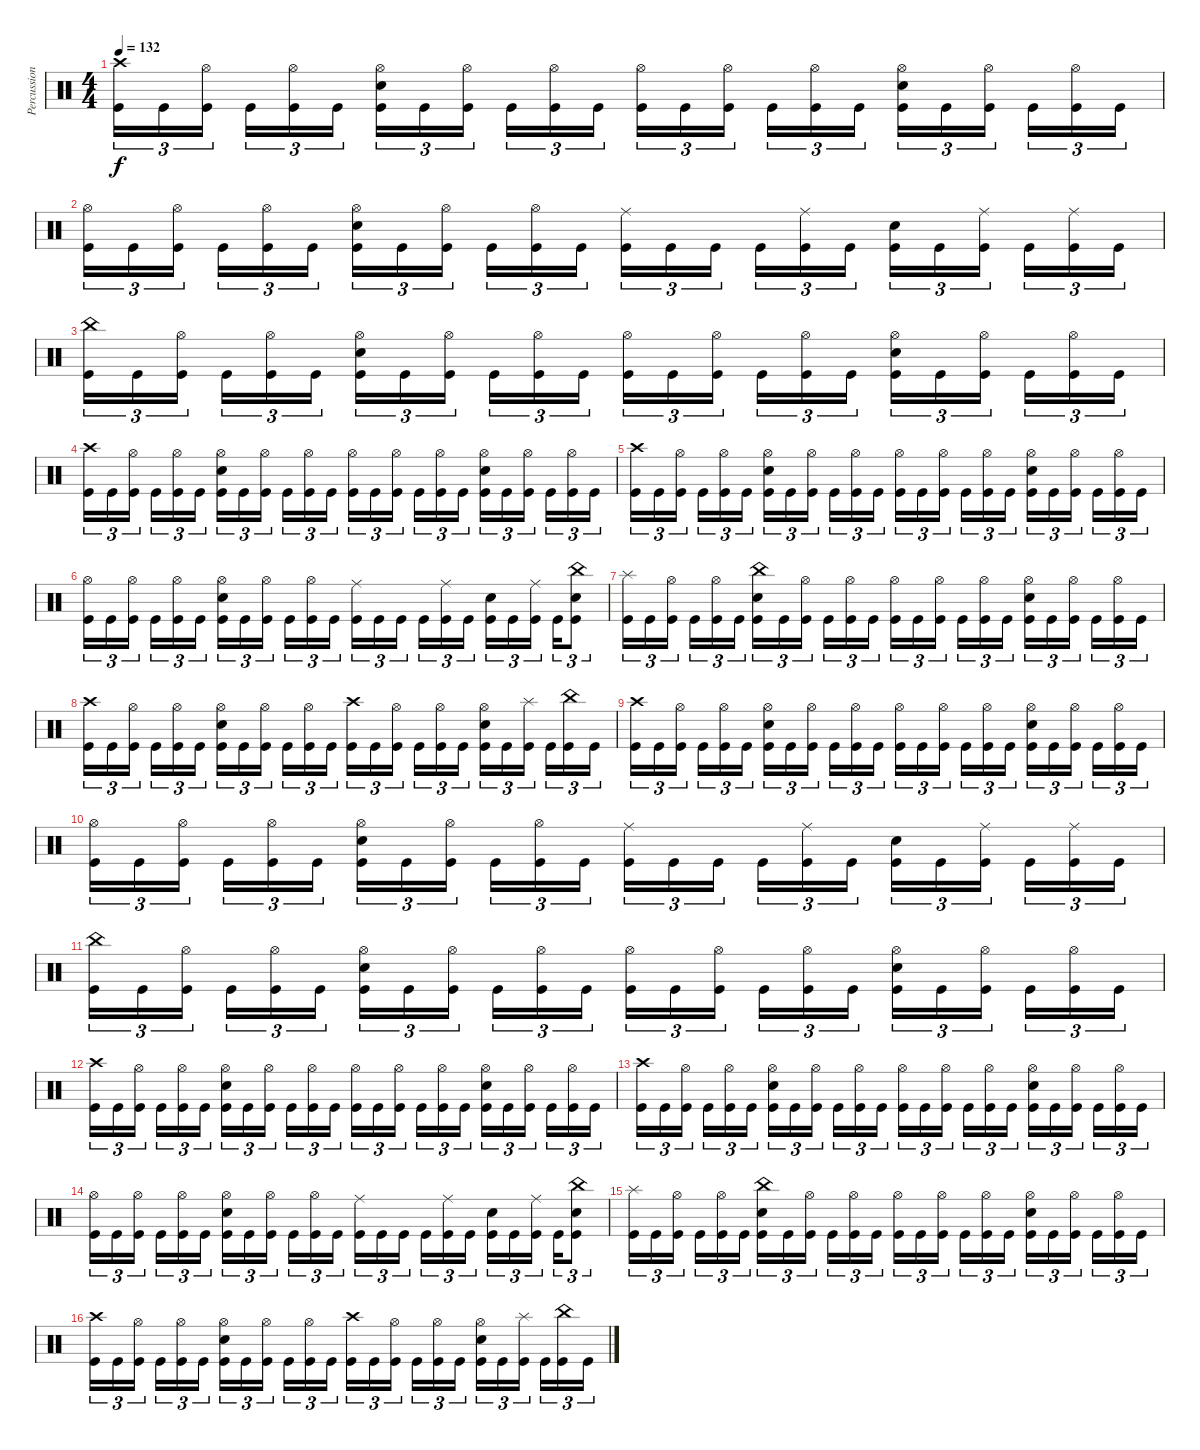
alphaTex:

\track ("Percussion" "Percussion") {instrument percussion}
\staff {score}
\articulation defaults
\ts (4 4)
\tempo 132
\clef neutral
\ks c
("Kick (hit)" "Crash high (hit)").16{tu (3 2) dy f} "Kick (hit)".16{tu (3 2)} ("Kick (hit)" "Hi-Hat (open)").16{tu (3 2) beam splitsecondary} "Kick (hit)".16{tu (3 2)} ("Kick (hit)" "Hi-Hat (open)").16{tu (3 2)} "Kick (hit)".16{tu (3 2)} ("Electric Snare (hit)" "Kick (hit)" "Hi-Hat (open)").16{tu (3 2)} "Kick (hit)".16{tu (3 2)} ("Hi-Hat (open)" "Kick (hit)").16{tu (3 2) beam splitsecondary} "Kick (hit)".16{tu (3 2)} ("Kick (hit)" "Hi-Hat (open)").16{tu (3 2)} "Kick (hit)".16{tu (3 2)} ("Hi-Hat (open)" "Kick (hit)").16{tu (3 2)} "Kick (hit)".16{tu (3 2)} ("Kick (hit)" "Hi-Hat (open)").16{tu (3 2) beam splitsecondary} "Kick (hit)".16{tu (3 2)} ("Kick (hit)" "Hi-Hat (open)").16{tu (3 2)} "Kick (hit)".16{tu (3 2)} ("Electric Snare (hit)" "Kick (hit)" "Hi-Hat (open)").16{tu (3 2)} "Kick (hit)".16{tu (3 2)} ("Kick (hit)" "Hi-Hat (open)").16{tu (3 2) beam splitsecondary} "Kick (hit)".16{tu (3 2)} ("Kick (hit)" "Hi-Hat (open)").16{tu (3 2)} "Kick (hit)".16{tu (3 2)} |
("Kick (hit)" "Hi-Hat (open)").16{tu (3 2)} "Kick (hit)".16{tu (3 2)} ("Kick (hit)" "Hi-Hat (open)").16{tu (3 2) beam splitsecondary} "Kick (hit)".16{tu (3 2)} ("Kick (hit)" "Hi-Hat (open)").16{tu (3 2)} "Kick (hit)".16{tu (3 2)} ("Electric Snare (hit)" "Kick (hit)" "Hi-Hat (open)").16{tu (3 2)} "Kick (hit)".16{tu (3 2)} ("Hi-Hat (open)" "Kick (hit)").16{tu (3 2) beam splitsecondary} "Kick (hit)".16{tu (3 2)} ("Kick (hit)" "Hi-Hat (open)").16{tu (3 2)} "Kick (hit)".16{tu (3 2)} ("Ride (middle)" "Kick (hit)").16{tu (3 2)} "Kick (hit)".16{tu (3 2)} "Kick (hit)".16{tu (3 2) beam splitsecondary} "Kick (hit)".16{tu (3 2)} ("Ride (middle)" "Kick (hit)").16{tu (3 2)} "Kick (hit)".16{tu (3 2)} ("Electric Snare (hit)" "Kick (hit)").16{tu (3 2)} "Kick (hit)".16{tu (3 2)} ("Ride (middle)" "Kick (hit)").16{tu (3 2) beam splitsecondary} "Kick (hit)".16{tu (3 2)} ("Ride (middle)" "Kick (hit)").16{tu (3 2)} "Kick (hit)".16{tu (3 2)} |
("Kick (hit)" "China (hit)").16{tu (3 2)} "Kick (hit)".16{tu (3 2)} ("Kick (hit)" "Hi-Hat (open)").16{tu (3 2) beam splitsecondary} "Kick (hit)".16{tu (3 2)} ("Kick (hit)" "Hi-Hat (open)").16{tu (3 2)} "Kick (hit)".16{tu (3 2)} ("Electric Snare (hit)" "Kick (hit)" "Hi-Hat (open)").16{tu (3 2)} "Kick (hit)".16{tu (3 2)} ("Hi-Hat (open)" "Kick (hit)").16{tu (3 2) beam splitsecondary} "Kick (hit)".16{tu (3 2)} ("Kick (hit)" "Hi-Hat (open)").16{tu (3 2)} "Kick (hit)".16{tu (3 2)} ("Hi-Hat (open)" "Kick (hit)").16{tu (3 2)} "Kick (hit)".16{tu (3 2)} ("Kick (hit)" "Hi-Hat (open)").16{tu (3 2) beam splitsecondary} "Kick (hit)".16{tu (3 2)} ("Kick (hit)" "Hi-Hat (open)").16{tu (3 2)} "Kick (hit)".16{tu (3 2)} ("Electric Snare (hit)" "Kick (hit)" "Hi-Hat (open)").16{tu (3 2)} "Kick (hit)".16{tu (3 2)} ("Kick (hit)" "Hi-Hat (open)").16{tu (3 2) beam splitsecondary} "Kick (hit)".16{tu (3 2)} ("Kick (hit)" "Hi-Hat (open)").16{tu (3 2)} "Kick (hit)".16{tu (3 2)} |
("Kick (hit)" "Crash high (hit)").16{tu (3 2)} "Kick (hit)".16{tu (3 2)} ("Kick (hit)" "Hi-Hat (open)").16{tu (3 2) beam splitsecondary} "Kick (hit)".16{tu (3 2)} ("Kick (hit)" "Hi-Hat (open)").16{tu (3 2)} "Kick (hit)".16{tu (3 2)} ("Electric Snare (hit)" "Kick (hit)" "Hi-Hat (open)").16{tu (3 2)} "Kick (hit)".16{tu (3 2)} ("Hi-Hat (open)" "Kick (hit)").16{tu (3 2) beam splitsecondary} "Kick (hit)".16{tu (3 2)} ("Kick (hit)" "Hi-Hat (open)").16{tu (3 2)} "Kick (hit)".16{tu (3 2)} ("Hi-Hat (open)" "Kick (hit)").16{tu (3 2)} "Kick (hit)".16{tu (3 2)} ("Kick (hit)" "Hi-Hat (open)").16{tu (3 2) beam splitsecondary} "Kick (hit)".16{tu (3 2)} ("Kick (hit)" "Hi-Hat (open)").16{tu (3 2)} "Kick (hit)".16{tu (3 2)} ("Electric Snare (hit)" "Kick (hit)" "Hi-Hat (open)").16{tu (3 2)} "Kick (hit)".16{tu (3 2)} ("Kick (hit)" "Hi-Hat (open)").16{tu (3 2) beam splitsecondary} "Kick (hit)".16{tu (3 2)} ("Kick (hit)" "Hi-Hat (open)").16{tu (3 2)} "Kick (hit)".16{tu (3 2)} |
("Kick (hit)" "Crash high (hit)").16{tu (3 2)} "Kick (hit)".16{tu (3 2)} ("Kick (hit)" "Hi-Hat (open)").16{tu (3 2) beam splitsecondary} "Kick (hit)".16{tu (3 2)} ("Kick (hit)" "Hi-Hat (open)").16{tu (3 2)} "Kick (hit)".16{tu (3 2)} ("Electric Snare (hit)" "Kick (hit)" "Hi-Hat (open)").16{tu (3 2)} "Kick (hit)".16{tu (3 2)} ("Hi-Hat (open)" "Kick (hit)").16{tu (3 2) beam splitsecondary} "Kick (hit)".16{tu (3 2)} ("Kick (hit)" "Hi-Hat (open)").16{tu (3 2)} "Kick (hit)".16{tu (3 2)} ("Hi-Hat (open)" "Kick (hit)").16{tu (3 2)} "Kick (hit)".16{tu (3 2)} ("Kick (hit)" "Hi-Hat (open)").16{tu (3 2) beam splitsecondary} "Kick (hit)".16{tu (3 2)} ("Kick (hit)" "Hi-Hat (open)").16{tu (3 2)} "Kick (hit)".16{tu (3 2)} ("Electric Snare (hit)" "Kick (hit)" "Hi-Hat (open)").16{tu (3 2)} "Kick (hit)".16{tu (3 2)} ("Kick (hit)" "Hi-Hat (open)").16{tu (3 2) beam splitsecondary} "Kick (hit)".16{tu (3 2)} ("Kick (hit)" "Hi-Hat (open)").16{tu (3 2)} "Kick (hit)".16{tu (3 2)} |
("Kick (hit)" "Hi-Hat (open)").16{tu (3 2)} "Kick (hit)".16{tu (3 2)} ("Kick (hit)" "Hi-Hat (open)").16{tu (3 2) beam splitsecondary} "Kick (hit)".16{tu (3 2)} ("Kick (hit)" "Hi-Hat (open)").16{tu (3 2)} "Kick (hit)".16{tu (3 2)} ("Electric Snare (hit)" "Kick (hit)" "Hi-Hat (open)").16{tu (3 2)} "Kick (hit)".16{tu (3 2)} ("Hi-Hat (open)" "Kick (hit)").16{tu (3 2) beam splitsecondary} "Kick (hit)".16{tu (3 2)} ("Kick (hit)" "Hi-Hat (open)").16{tu (3 2)} "Kick (hit)".16{tu (3 2)} ("Ride (middle)" "Kick (hit)").16{tu (3 2)} "Kick (hit)".16{tu (3 2)} "Kick (hit)".16{tu (3 2) beam splitsecondary} "Kick (hit)".16{tu (3 2)} ("Ride (middle)" "Kick (hit)").16{tu (3 2)} "Kick (hit)".16{tu (3 2)} ("Electric Snare (hit)" "Kick (hit)").16{tu (3 2)} "Kick (hit)".16{tu (3 2)} ("Ride (middle)" "Kick (hit)").16{tu (3 2) beam splitsecondary} "Kick (hit)".16{tu (3 2)} ("Electric Snare (hit)" "China (hit)" "Kick (hit)").8{tu (3 2)} |
("Kick (hit)" "Splash (hit)").16{tu (3 2)} "Kick (hit)".16{tu (3 2)} ("Kick (hit)" "Hi-Hat (open)").16{tu (3 2) beam splitsecondary} "Kick (hit)".16{tu (3 2)} ("Kick (hit)" "Hi-Hat (open)").16{tu (3 2)} "Kick (hit)".16{tu (3 2)} ("Electric Snare (hit)" "Kick (hit)" "China (hit)").16{tu (3 2)} "Kick (hit)".16{tu (3 2)} ("Hi-Hat (open)" "Kick (hit)").16{tu (3 2) beam splitsecondary} "Kick (hit)".16{tu (3 2)} ("Kick (hit)" "Hi-Hat (open)").16{tu (3 2)} "Kick (hit)".16{tu (3 2)} ("Hi-Hat (open)" "Kick (hit)").16{tu (3 2)} "Kick (hit)".16{tu (3 2)} ("Kick (hit)" "Hi-Hat (open)").16{tu (3 2) beam splitsecondary} "Kick (hit)".16{tu (3 2)} ("Kick (hit)" "Hi-Hat (open)").16{tu (3 2)} "Kick (hit)".16{tu (3 2)} ("Electric Snare (hit)" "Kick (hit)" "Hi-Hat (open)").16{tu (3 2)} "Kick (hit)".16{tu (3 2)} ("Kick (hit)" "Hi-Hat (open)").16{tu (3 2) beam splitsecondary} "Kick (hit)".16{tu (3 2)} ("Kick (hit)" "Hi-Hat (open)").16{tu (3 2)} "Kick (hit)".16{tu (3 2)} |
("Kick (hit)" "Crash high (hit)").16{tu (3 2)} "Kick (hit)".16{tu (3 2)} ("Kick (hit)" "Hi-Hat (open)").16{tu (3 2) beam splitsecondary} "Kick (hit)".16{tu (3 2)} ("Kick (hit)" "Hi-Hat (open)").16{tu (3 2)} "Kick (hit)".16{tu (3 2)} ("Electric Snare (hit)" "Kick (hit)" "Hi-Hat (open)").16{tu (3 2)} "Kick (hit)".16{tu (3 2)} ("Hi-Hat (open)" "Kick (hit)").16{tu (3 2) beam splitsecondary} "Kick (hit)".16{tu (3 2)} ("Kick (hit)" "Hi-Hat (open)").16{tu (3 2)} "Kick (hit)".16{tu (3 2)} ("Crash high (hit)" "Kick (hit)").16{tu (3 2)} "Kick (hit)".16{tu (3 2)} ("Kick (hit)" "Hi-Hat (open)").16{tu (3 2) beam splitsecondary} "Kick (hit)".16{tu (3 2)} ("Kick (hit)" "Hi-Hat (open)").16{tu (3 2)} "Kick (hit)".16{tu (3 2)} ("Electric Snare (hit)" "Kick (hit)" "Hi-Hat (open)").16{tu (3 2)} "Kick (hit)".16{tu (3 2)} ("Kick (hit)" "Splash (hit)").16{tu (3 2) beam splitsecondary} "Kick (hit)".16{tu (3 2)} ("Kick (hit)" "China (hit)").16{tu (3 2)} "Kick (hit)".16{tu (3 2)} |
("Kick (hit)" "Crash high (hit)").16{tu (3 2)} "Kick (hit)".16{tu (3 2)} ("Kick (hit)" "Hi-Hat (open)").16{tu (3 2) beam splitsecondary} "Kick (hit)".16{tu (3 2)} ("Kick (hit)" "Hi-Hat (open)").16{tu (3 2)} "Kick (hit)".16{tu (3 2)} ("Electric Snare (hit)" "Kick (hit)" "Hi-Hat (open)").16{tu (3 2)} "Kick (hit)".16{tu (3 2)} ("Hi-Hat (open)" "Kick (hit)").16{tu (3 2) beam splitsecondary} "Kick (hit)".16{tu (3 2)} ("Kick (hit)" "Hi-Hat (open)").16{tu (3 2)} "Kick (hit)".16{tu (3 2)} ("Hi-Hat (open)" "Kick (hit)").16{tu (3 2)} "Kick (hit)".16{tu (3 2)} ("Kick (hit)" "Hi-Hat (open)").16{tu (3 2) beam splitsecondary} "Kick (hit)".16{tu (3 2)} ("Kick (hit)" "Hi-Hat (open)").16{tu (3 2)} "Kick (hit)".16{tu (3 2)} ("Electric Snare (hit)" "Kick (hit)" "Hi-Hat (open)").16{tu (3 2)} "Kick (hit)".16{tu (3 2)} ("Kick (hit)" "Hi-Hat (open)").16{tu (3 2) beam splitsecondary} "Kick (hit)".16{tu (3 2)} ("Kick (hit)" "Hi-Hat (open)").16{tu (3 2)} "Kick (hit)".16{tu (3 2)} |
("Kick (hit)" "Hi-Hat (open)").16{tu (3 2)} "Kick (hit)".16{tu (3 2)} ("Kick (hit)" "Hi-Hat (open)").16{tu (3 2) beam splitsecondary} "Kick (hit)".16{tu (3 2)} ("Kick (hit)" "Hi-Hat (open)").16{tu (3 2)} "Kick (hit)".16{tu (3 2)} ("Electric Snare (hit)" "Kick (hit)" "Hi-Hat (open)").16{tu (3 2)} "Kick (hit)".16{tu (3 2)} ("Hi-Hat (open)" "Kick (hit)").16{tu (3 2) beam splitsecondary} "Kick (hit)".16{tu (3 2)} ("Kick (hit)" "Hi-Hat (open)").16{tu (3 2)} "Kick (hit)".16{tu (3 2)} ("Ride (middle)" "Kick (hit)").16{tu (3 2)} "Kick (hit)".16{tu (3 2)} "Kick (hit)".16{tu (3 2) beam splitsecondary} "Kick (hit)".16{tu (3 2)} ("Ride (middle)" "Kick (hit)").16{tu (3 2)} "Kick (hit)".16{tu (3 2)} ("Electric Snare (hit)" "Kick (hit)").16{tu (3 2)} "Kick (hit)".16{tu (3 2)} ("Ride (middle)" "Kick (hit)").16{tu (3 2) beam splitsecondary} "Kick (hit)".16{tu (3 2)} ("Ride (middle)" "Kick (hit)").16{tu (3 2)} "Kick (hit)".16{tu (3 2)} |
("Kick (hit)" "China (hit)").16{tu (3 2)} "Kick (hit)".16{tu (3 2)} ("Kick (hit)" "Hi-Hat (open)").16{tu (3 2) beam splitsecondary} "Kick (hit)".16{tu (3 2)} ("Kick (hit)" "Hi-Hat (open)").16{tu (3 2)} "Kick (hit)".16{tu (3 2)} ("Electric Snare (hit)" "Kick (hit)" "Hi-Hat (open)").16{tu (3 2)} "Kick (hit)".16{tu (3 2)} ("Hi-Hat (open)" "Kick (hit)").16{tu (3 2) beam splitsecondary} "Kick (hit)".16{tu (3 2)} ("Kick (hit)" "Hi-Hat (open)").16{tu (3 2)} "Kick (hit)".16{tu (3 2)} ("Hi-Hat (open)" "Kick (hit)").16{tu (3 2)} "Kick (hit)".16{tu (3 2)} ("Kick (hit)" "Hi-Hat (open)").16{tu (3 2) beam splitsecondary} "Kick (hit)".16{tu (3 2)} ("Kick (hit)" "Hi-Hat (open)").16{tu (3 2)} "Kick (hit)".16{tu (3 2)} ("Electric Snare (hit)" "Kick (hit)" "Hi-Hat (open)").16{tu (3 2)} "Kick (hit)".16{tu (3 2)} ("Kick (hit)" "Hi-Hat (open)").16{tu (3 2) beam splitsecondary} "Kick (hit)".16{tu (3 2)} ("Kick (hit)" "Hi-Hat (open)").16{tu (3 2)} "Kick (hit)".16{tu (3 2)} |
("Kick (hit)" "Crash high (hit)").16{tu (3 2)} "Kick (hit)".16{tu (3 2)} ("Kick (hit)" "Hi-Hat (open)").16{tu (3 2) beam splitsecondary} "Kick (hit)".16{tu (3 2)} ("Kick (hit)" "Hi-Hat (open)").16{tu (3 2)} "Kick (hit)".16{tu (3 2)} ("Electric Snare (hit)" "Kick (hit)" "Hi-Hat (open)").16{tu (3 2)} "Kick (hit)".16{tu (3 2)} ("Hi-Hat (open)" "Kick (hit)").16{tu (3 2) beam splitsecondary} "Kick (hit)".16{tu (3 2)} ("Kick (hit)" "Hi-Hat (open)").16{tu (3 2)} "Kick (hit)".16{tu (3 2)} ("Hi-Hat (open)" "Kick (hit)").16{tu (3 2)} "Kick (hit)".16{tu (3 2)} ("Kick (hit)" "Hi-Hat (open)").16{tu (3 2) beam splitsecondary} "Kick (hit)".16{tu (3 2)} ("Kick (hit)" "Hi-Hat (open)").16{tu (3 2)} "Kick (hit)".16{tu (3 2)} ("Electric Snare (hit)" "Kick (hit)" "Hi-Hat (open)").16{tu (3 2)} "Kick (hit)".16{tu (3 2)} ("Kick (hit)" "Hi-Hat (open)").16{tu (3 2) beam splitsecondary} "Kick (hit)".16{tu (3 2)} ("Kick (hit)" "Hi-Hat (open)").16{tu (3 2)} "Kick (hit)".16{tu (3 2)} |
("Kick (hit)" "Crash high (hit)").16{tu (3 2)} "Kick (hit)".16{tu (3 2)} ("Kick (hit)" "Hi-Hat (open)").16{tu (3 2) beam splitsecondary} "Kick (hit)".16{tu (3 2)} ("Kick (hit)" "Hi-Hat (open)").16{tu (3 2)} "Kick (hit)".16{tu (3 2)} ("Electric Snare (hit)" "Kick (hit)" "Hi-Hat (open)").16{tu (3 2)} "Kick (hit)".16{tu (3 2)} ("Hi-Hat (open)" "Kick (hit)").16{tu (3 2) beam splitsecondary} "Kick (hit)".16{tu (3 2)} ("Kick (hit)" "Hi-Hat (open)").16{tu (3 2)} "Kick (hit)".16{tu (3 2)} ("Hi-Hat (open)" "Kick (hit)").16{tu (3 2)} "Kick (hit)".16{tu (3 2)} ("Kick (hit)" "Hi-Hat (open)").16{tu (3 2) beam splitsecondary} "Kick (hit)".16{tu (3 2)} ("Kick (hit)" "Hi-Hat (open)").16{tu (3 2)} "Kick (hit)".16{tu (3 2)} ("Electric Snare (hit)" "Kick (hit)" "Hi-Hat (open)").16{tu (3 2)} "Kick (hit)".16{tu (3 2)} ("Kick (hit)" "Hi-Hat (open)").16{tu (3 2) beam splitsecondary} "Kick (hit)".16{tu (3 2)} ("Kick (hit)" "Hi-Hat (open)").16{tu (3 2)} "Kick (hit)".16{tu (3 2)} |
("Kick (hit)" "Hi-Hat (open)").16{tu (3 2)} "Kick (hit)".16{tu (3 2)} ("Kick (hit)" "Hi-Hat (open)").16{tu (3 2) beam splitsecondary} "Kick (hit)".16{tu (3 2)} ("Kick (hit)" "Hi-Hat (open)").16{tu (3 2)} "Kick (hit)".16{tu (3 2)} ("Electric Snare (hit)" "Kick (hit)" "Hi-Hat (open)").16{tu (3 2)} "Kick (hit)".16{tu (3 2)} ("Hi-Hat (open)" "Kick (hit)").16{tu (3 2) beam splitsecondary} "Kick (hit)".16{tu (3 2)} ("Kick (hit)" "Hi-Hat (open)").16{tu (3 2)} "Kick (hit)".16{tu (3 2)} ("Ride (middle)" "Kick (hit)").16{tu (3 2)} "Kick (hit)".16{tu (3 2)} "Kick (hit)".16{tu (3 2) beam splitsecondary} "Kick (hit)".16{tu (3 2)} ("Ride (middle)" "Kick (hit)").16{tu (3 2)} "Kick (hit)".16{tu (3 2)} ("Electric Snare (hit)" "Kick (hit)").16{tu (3 2)} "Kick (hit)".16{tu (3 2)} ("Ride (middle)" "Kick (hit)").16{tu (3 2) beam splitsecondary} "Kick (hit)".16{tu (3 2)} ("Electric Snare (hit)" "China (hit)" "Kick (hit)").8{tu (3 2)} |
("Kick (hit)" "Splash (hit)").16{tu (3 2)} "Kick (hit)".16{tu (3 2)} ("Kick (hit)" "Hi-Hat (open)").16{tu (3 2) beam splitsecondary} "Kick (hit)".16{tu (3 2)} ("Kick (hit)" "Hi-Hat (open)").16{tu (3 2)} "Kick (hit)".16{tu (3 2)} ("Electric Snare (hit)" "Kick (hit)" "China (hit)").16{tu (3 2)} "Kick (hit)".16{tu (3 2)} ("Hi-Hat (open)" "Kick (hit)").16{tu (3 2) beam splitsecondary} "Kick (hit)".16{tu (3 2)} ("Kick (hit)" "Hi-Hat (open)").16{tu (3 2)} "Kick (hit)".16{tu (3 2)} ("Hi-Hat (open)" "Kick (hit)").16{tu (3 2)} "Kick (hit)".16{tu (3 2)} ("Kick (hit)" "Hi-Hat (open)").16{tu (3 2) beam splitsecondary} "Kick (hit)".16{tu (3 2)} ("Kick (hit)" "Hi-Hat (open)").16{tu (3 2)} "Kick (hit)".16{tu (3 2)} ("Electric Snare (hit)" "Kick (hit)" "Hi-Hat (open)").16{tu (3 2)} "Kick (hit)".16{tu (3 2)} ("Kick (hit)" "Hi-Hat (open)").16{tu (3 2) beam splitsecondary} "Kick (hit)".16{tu (3 2)} ("Kick (hit)" "Hi-Hat (open)").16{tu (3 2)} "Kick (hit)".16{tu (3 2)} |
("Kick (hit)" "Crash high (hit)").16{tu (3 2)} "Kick (hit)".16{tu (3 2)} ("Kick (hit)" "Hi-Hat (open)").16{tu (3 2) beam splitsecondary} "Kick (hit)".16{tu (3 2)} ("Kick (hit)" "Hi-Hat (open)").16{tu (3 2)} "Kick (hit)".16{tu (3 2)} ("Electric Snare (hit)" "Kick (hit)" "Hi-Hat (open)").16{tu (3 2)} "Kick (hit)".16{tu (3 2)} ("Hi-Hat (open)" "Kick (hit)").16{tu (3 2) beam splitsecondary} "Kick (hit)".16{tu (3 2)} ("Kick (hit)" "Hi-Hat (open)").16{tu (3 2)} "Kick (hit)".16{tu (3 2)} ("Crash high (hit)" "Kick (hit)").16{tu (3 2)} "Kick (hit)".16{tu (3 2)} ("Kick (hit)" "Hi-Hat (open)").16{tu (3 2) beam splitsecondary} "Kick (hit)".16{tu (3 2)} ("Kick (hit)" "Hi-Hat (open)").16{tu (3 2)} "Kick (hit)".16{tu (3 2)} ("Electric Snare (hit)" "Kick (hit)" "Hi-Hat (open)").16{tu (3 2)} "Kick (hit)".16{tu (3 2)} ("Kick (hit)" "Splash (hit)").16{tu (3 2) beam splitsecondary} "Kick (hit)".16{tu (3 2)} ("Kick (hit)" "China (hit)").16{tu (3 2)} "Kick (hit)".16{tu (3 2)}
